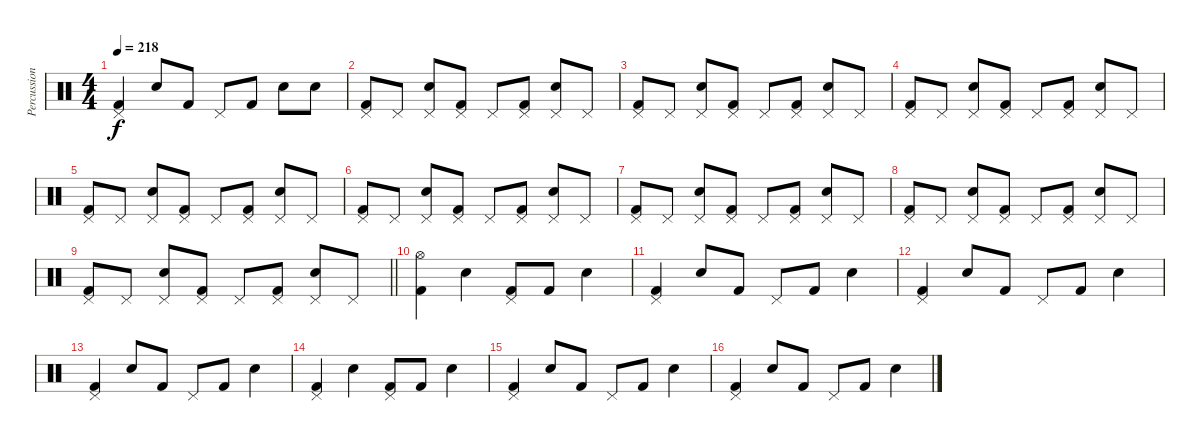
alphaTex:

\track ("Percussion" "Percussion") {instrument percussion}
\staff {score}
\articulation defaults
\ts (4 4)
\tempo 218
\clef neutral
\ks c
("Kick (hit) 2" "Pedal Hi-Hat (hit)").4{dy f} "Snare (hit) 2".8 "Kick (hit) 2".8 "Pedal Hi-Hat (hit)".8 "Kick (hit) 2".8 "Snare (hit) 2".8 "Snare (hit) 2".8 |
("Kick (hit) 2" "Pedal Hi-Hat (hit)").8 "Pedal Hi-Hat (hit)".8 ("Snare (hit) 2" "Pedal Hi-Hat (hit)").8 ("Kick (hit) 2" "Pedal Hi-Hat (hit)").8 "Pedal Hi-Hat (hit)".8 ("Kick (hit) 2" "Pedal Hi-Hat (hit)").8 ("Snare (hit) 2" "Pedal Hi-Hat (hit)").8 "Pedal Hi-Hat (hit)".8 |
("Kick (hit) 2" "Pedal Hi-Hat (hit)").8 "Pedal Hi-Hat (hit)".8 ("Snare (hit) 2" "Pedal Hi-Hat (hit)").8 ("Kick (hit) 2" "Pedal Hi-Hat (hit)").8 "Pedal Hi-Hat (hit)".8 ("Kick (hit) 2" "Pedal Hi-Hat (hit)").8 ("Snare (hit) 2" "Pedal Hi-Hat (hit)").8 "Pedal Hi-Hat (hit)".8 |
("Kick (hit) 2" "Pedal Hi-Hat (hit)").8 "Pedal Hi-Hat (hit)".8 ("Snare (hit) 2" "Pedal Hi-Hat (hit)").8 ("Kick (hit) 2" "Pedal Hi-Hat (hit)").8 "Pedal Hi-Hat (hit)".8 ("Kick (hit) 2" "Pedal Hi-Hat (hit)").8 ("Snare (hit) 2" "Pedal Hi-Hat (hit)").8 "Pedal Hi-Hat (hit)".8 |
("Kick (hit) 2" "Pedal Hi-Hat (hit)").8 "Pedal Hi-Hat (hit)".8 ("Snare (hit) 2" "Pedal Hi-Hat (hit)").8 ("Kick (hit) 2" "Pedal Hi-Hat (hit)").8 "Pedal Hi-Hat (hit)".8 ("Kick (hit) 2" "Pedal Hi-Hat (hit)").8 ("Snare (hit) 2" "Pedal Hi-Hat (hit)").8 "Pedal Hi-Hat (hit)".8 |
("Kick (hit) 2" "Pedal Hi-Hat (hit)").8 "Pedal Hi-Hat (hit)".8 ("Snare (hit) 2" "Pedal Hi-Hat (hit)").8 ("Kick (hit) 2" "Pedal Hi-Hat (hit)").8 "Pedal Hi-Hat (hit)".8 ("Kick (hit) 2" "Pedal Hi-Hat (hit)").8 ("Snare (hit) 2" "Pedal Hi-Hat (hit)").8 "Pedal Hi-Hat (hit)".8 |
("Kick (hit) 2" "Pedal Hi-Hat (hit)").8 "Pedal Hi-Hat (hit)".8 ("Snare (hit) 2" "Pedal Hi-Hat (hit)").8 ("Kick (hit) 2" "Pedal Hi-Hat (hit)").8 "Pedal Hi-Hat (hit)".8 ("Kick (hit) 2" "Pedal Hi-Hat (hit)").8 ("Snare (hit) 2" "Pedal Hi-Hat (hit)").8 "Pedal Hi-Hat (hit)".8 |
("Kick (hit) 2" "Pedal Hi-Hat (hit)").8 "Pedal Hi-Hat (hit)".8 ("Snare (hit) 2" "Pedal Hi-Hat (hit)").8 ("Kick (hit) 2" "Pedal Hi-Hat (hit)").8 "Pedal Hi-Hat (hit)".8 ("Kick (hit) 2" "Pedal Hi-Hat (hit)").8 ("Snare (hit) 2" "Pedal Hi-Hat (hit)").8 "Pedal Hi-Hat (hit)".8 |
\barLineRight lightlight
("Kick (hit) 2" "Pedal Hi-Hat (hit)").8 "Pedal Hi-Hat (hit)".8 ("Snare (hit) 2" "Pedal Hi-Hat (hit)").8 ("Kick (hit) 2" "Pedal Hi-Hat (hit)").8 "Pedal Hi-Hat (hit)".8 ("Kick (hit) 2" "Pedal Hi-Hat (hit)").8 ("Snare (hit) 2" "Pedal Hi-Hat (hit)").8 "Pedal Hi-Hat (hit)".8 |
("Kick (hit) 2" "Hi-Hat (open)").4 "Snare (hit) 2".4 ("Kick (hit) 2" "Pedal Hi-Hat (hit)").8 "Kick (hit) 2".8 "Snare (hit) 2".4 |
("Kick (hit) 2" "Pedal Hi-Hat (hit)").4 "Snare (hit) 2".8 "Kick (hit) 2".8 "Pedal Hi-Hat (hit)".8 "Kick (hit) 2".8 "Snare (hit) 2".4 |
("Kick (hit) 2" "Pedal Hi-Hat (hit)").4 "Snare (hit) 2".8 "Kick (hit) 2".8 "Pedal Hi-Hat (hit)".8 "Kick (hit) 2".8 "Snare (hit) 2".4 |
("Kick (hit) 2" "Pedal Hi-Hat (hit)").4 "Snare (hit) 2".8 "Kick (hit) 2".8 "Pedal Hi-Hat (hit)".8 "Kick (hit) 2".8 "Snare (hit) 2".4 |
("Kick (hit) 2" "Pedal Hi-Hat (hit)").4 "Snare (hit) 2".4 ("Kick (hit) 2" "Pedal Hi-Hat (hit)").8 "Kick (hit) 2".8 "Snare (hit) 2".4 |
("Kick (hit) 2" "Pedal Hi-Hat (hit)").4 "Snare (hit) 2".8 "Kick (hit) 2".8 "Pedal Hi-Hat (hit)".8 "Kick (hit) 2".8 "Snare (hit) 2".4 |
("Kick (hit) 2" "Pedal Hi-Hat (hit)").4 "Snare (hit) 2".8 "Kick (hit) 2".8 "Pedal Hi-Hat (hit)".8 "Kick (hit) 2".8 "Snare (hit) 2".4
